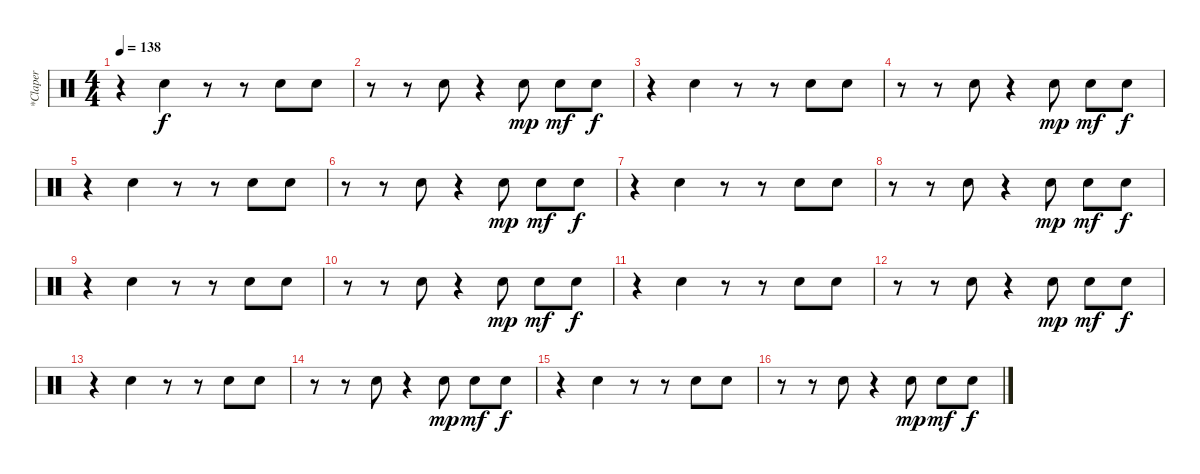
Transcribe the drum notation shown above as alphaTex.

\track ("*Claper" "*Claper") {instrument percussion}
\staff {score}
\articulation defaults
\ts (4 4)
\tempo 138
\clef neutral
\ks c
r.4{dy f} "Hand Clap (hit)".4 r.8 r.8 "Hand Clap (hit)".8 "Hand Clap (hit)".8 |
r.8 r.8 "Hand Clap (hit)".8 r.4 "Hand Clap (hit)".8{dy mp} "Hand Clap (hit)".8{dy mf} "Hand Clap (hit)".8{dy f} |
r.4 "Hand Clap (hit)".4 r.8 r.8 "Hand Clap (hit)".8 "Hand Clap (hit)".8 |
r.8 r.8 "Hand Clap (hit)".8 r.4 "Hand Clap (hit)".8{dy mp} "Hand Clap (hit)".8{dy mf} "Hand Clap (hit)".8{dy f} |
r.4 "Hand Clap (hit)".4 r.8 r.8 "Hand Clap (hit)".8 "Hand Clap (hit)".8 |
r.8 r.8 "Hand Clap (hit)".8 r.4 "Hand Clap (hit)".8{dy mp} "Hand Clap (hit)".8{dy mf} "Hand Clap (hit)".8{dy f} |
r.4 "Hand Clap (hit)".4 r.8 r.8 "Hand Clap (hit)".8 "Hand Clap (hit)".8 |
r.8 r.8 "Hand Clap (hit)".8 r.4 "Hand Clap (hit)".8{dy mp} "Hand Clap (hit)".8{dy mf} "Hand Clap (hit)".8{dy f} |
r.4 "Hand Clap (hit)".4 r.8 r.8 "Hand Clap (hit)".8 "Hand Clap (hit)".8 |
r.8 r.8 "Hand Clap (hit)".8 r.4 "Hand Clap (hit)".8{dy mp} "Hand Clap (hit)".8{dy mf} "Hand Clap (hit)".8{dy f} |
r.4 "Hand Clap (hit)".4 r.8 r.8 "Hand Clap (hit)".8 "Hand Clap (hit)".8 |
r.8 r.8 "Hand Clap (hit)".8 r.4 "Hand Clap (hit)".8{dy mp} "Hand Clap (hit)".8{dy mf} "Hand Clap (hit)".8{dy f} |
r.4 "Hand Clap (hit)".4 r.8 r.8 "Hand Clap (hit)".8 "Hand Clap (hit)".8 |
r.8 r.8 "Hand Clap (hit)".8 r.4 "Hand Clap (hit)".8{dy mp} "Hand Clap (hit)".8{dy mf} "Hand Clap (hit)".8{dy f} |
r.4 "Hand Clap (hit)".4 r.8 r.8 "Hand Clap (hit)".8 "Hand Clap (hit)".8 |
r.8 r.8 "Hand Clap (hit)".8 r.4 "Hand Clap (hit)".8{dy mp} "Hand Clap (hit)".8{dy mf} "Hand Clap (hit)".8{dy f}
